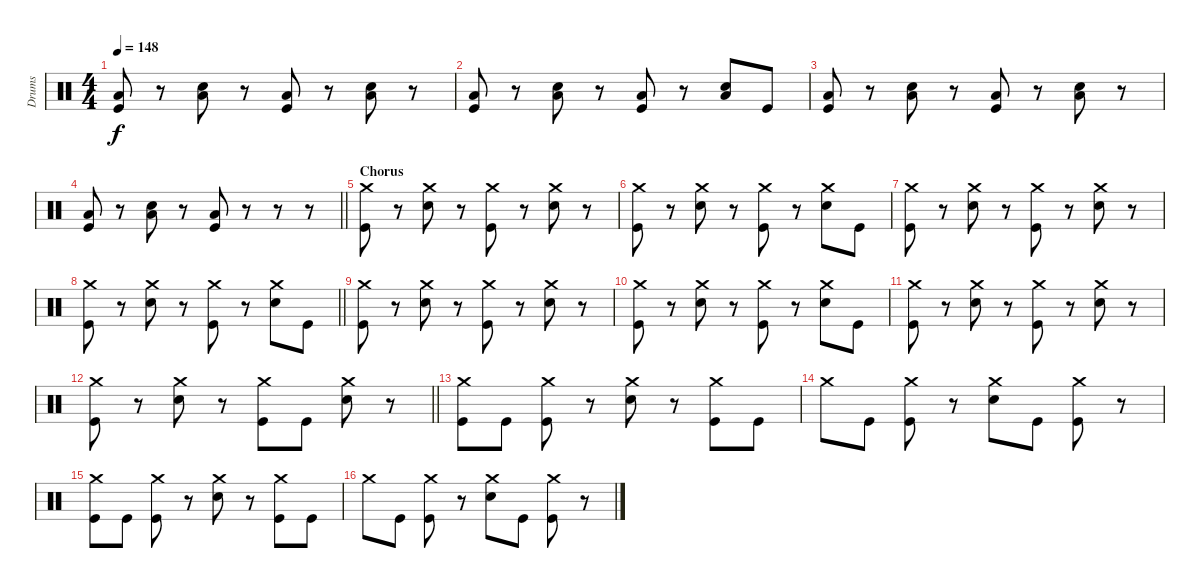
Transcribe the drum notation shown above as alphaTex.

\track ("Drums" "Drums") {instrument percussion}
\staff {score}
\articulation defaults
\ts (4 4)
\tempo 148
\clef neutral
\ks c
("Low Tom (hit)" "Kick (hit)").8{dy f} r.8 ("Low Tom (hit)" "Electric Snare (hit)").8 r.8 ("Low Tom (hit)" "Kick (hit)").8 r.8 ("Low Tom (hit)" "Electric Snare (hit)").8 r.8 |
("Low Tom (hit)" "Kick (hit)").8 r.8 ("Low Tom (hit)" "Electric Snare (hit)").8 r.8 ("Low Tom (hit)" "Kick (hit)").8 r.8 ("Low Tom (hit)" "Electric Snare (hit)").8 "Kick (hit)".8 |
("Low Tom (hit)" "Kick (hit)").8 r.8 ("Low Tom (hit)" "Electric Snare (hit)").8 r.8 ("Low Tom (hit)" "Kick (hit)").8 r.8 ("Low Tom (hit)" "Electric Snare (hit)").8 r.8 |
\barLineRight lightlight
("Low Tom (hit)" "Kick (hit)").8 r.8 ("Low Tom (hit)" "Electric Snare (hit)").8 r.8 ("Low Tom (hit)" "Kick (hit)").8 r.8 r.8 r.8 |
\section ("" "Chorus")
("Crash medium (hit)" "Kick (hit)").8 r.8 ("Crash medium (hit)" "Electric Snare (hit)").8 r.8 ("Crash medium (hit)" "Kick (hit)").8 r.8 ("Crash medium (hit)" "Electric Snare (hit)").8 r.8 |
("Crash medium (hit)" "Kick (hit)").8 r.8 ("Crash medium (hit)" "Electric Snare (hit)").8 r.8 ("Crash medium (hit)" "Kick (hit)").8 r.8 ("Crash medium (hit)" "Electric Snare (hit)").8 "Kick (hit)".8 |
("Crash medium (hit)" "Kick (hit)").8 r.8 ("Crash medium (hit)" "Electric Snare (hit)").8 r.8 ("Crash medium (hit)" "Kick (hit)").8 r.8 ("Crash medium (hit)" "Electric Snare (hit)").8 r.8 |
\barLineRight lightlight
("Crash medium (hit)" "Kick (hit)").8 r.8 ("Crash medium (hit)" "Electric Snare (hit)").8 r.8 ("Crash medium (hit)" "Kick (hit)").8 r.8 ("Crash medium (hit)" "Electric Snare (hit)").8 "Kick (hit)".8 |
("Crash medium (hit)" "Kick (hit)").8 r.8 ("Crash medium (hit)" "Electric Snare (hit)").8 r.8 ("Crash medium (hit)" "Kick (hit)").8 r.8 ("Crash medium (hit)" "Electric Snare (hit)").8 r.8 |
("Crash medium (hit)" "Kick (hit)").8 r.8 ("Crash medium (hit)" "Electric Snare (hit)").8 r.8 ("Crash medium (hit)" "Kick (hit)").8 r.8 ("Crash medium (hit)" "Electric Snare (hit)").8 "Kick (hit)".8 |
("Crash medium (hit)" "Kick (hit)").8 r.8 ("Crash medium (hit)" "Electric Snare (hit)").8 r.8 ("Crash medium (hit)" "Kick (hit)").8 r.8 ("Crash medium (hit)" "Electric Snare (hit)").8 r.8 |
\barLineRight lightlight
("Crash medium (hit)" "Kick (hit)").8 r.8 ("Crash medium (hit)" "Electric Snare (hit)").8 r.8 ("Crash medium (hit)" "Kick (hit)").8 "Kick (hit)".8 ("Crash medium (hit)" "Electric Snare (hit)").8 r.8 |
("Crash medium (hit)" "Kick (hit)").8 "Kick (hit)".8 ("Crash medium (hit)" "Kick (hit)").8 r.8 ("Crash medium (hit)" "Electric Snare (hit)").8 r.8 ("Crash medium (hit)" "Kick (hit)").8 "Kick (hit)".8 |
"Crash medium (hit)".8 "Kick (hit)".8 ("Crash medium (hit)" "Kick (hit)").8 r.8 ("Crash medium (hit)" "Electric Snare (hit)").8 "Kick (hit)".8 ("Crash medium (hit)" "Kick (hit)").8 r.8 |
("Crash medium (hit)" "Kick (hit)").8 "Kick (hit)".8 ("Crash medium (hit)" "Kick (hit)").8 r.8 ("Crash medium (hit)" "Electric Snare (hit)").8 r.8 ("Crash medium (hit)" "Kick (hit)").8 "Kick (hit)".8 |
"Crash medium (hit)".8 "Kick (hit)".8 ("Crash medium (hit)" "Kick (hit)").8 r.8 ("Crash medium (hit)" "Electric Snare (hit)").8 "Kick (hit)".8 ("Crash medium (hit)" "Kick (hit)").8 r.8
